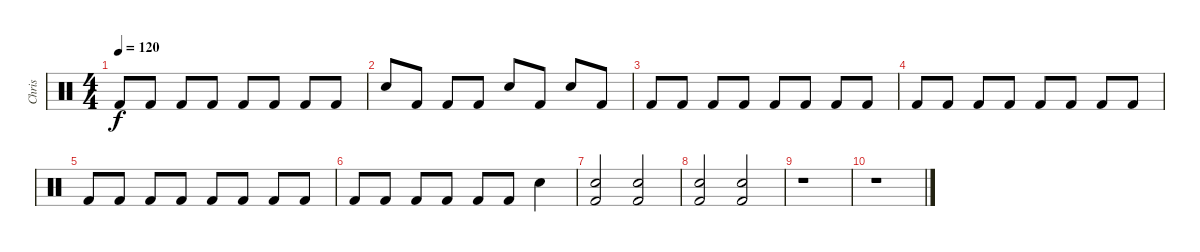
\track ("Chris" "Chris") {instrument percussion}
\staff {score}
\articulation defaults
\ts (4 4)
\tempo 120
\clef neutral
\ks c "Kick (hit) 2".8{dy f} "Kick (hit) 2".8 "Kick (hit) 2".8 "Kick (hit) 2".8 "Kick (hit) 2".8 "Kick (hit) 2".8 "Kick (hit) 2".8 "Kick (hit) 2".8
|
"Snare (hit) 2".8 "Kick (hit) 2".8 "Kick (hit) 2".8 "Kick (hit) 2".8 "Snare (hit) 2".8 "Kick (hit) 2".8 "Snare (hit) 2".8 "Kick (hit) 2".8 |
"Kick (hit) 2".8 "Kick (hit) 2".8 "Kick (hit) 2".8 "Kick (hit) 2".8 "Kick (hit) 2".8 "Kick (hit) 2".8 "Kick (hit) 2".8 "Kick (hit) 2".8 |
"Kick (hit) 2".8 "Kick (hit) 2".8 "Kick (hit) 2".8 "Kick (hit) 2".8 "Kick (hit) 2".8 "Kick (hit) 2".8 "Kick (hit) 2".8 "Kick (hit) 2".8 |
"Kick (hit) 2".8 "Kick (hit) 2".8 "Kick (hit) 2".8 "Kick (hit) 2".8 "Kick (hit) 2".8 "Kick (hit) 2".8 "Kick (hit) 2".8 "Kick (hit) 2".8 |
"Kick (hit) 2".8 "Kick (hit) 2".8 "Kick (hit) 2".8 "Kick (hit) 2".8 "Kick (hit) 2".8 "Kick (hit) 2".8 "Snare (hit) 2".4 |
("Snare (hit) 2" "Kick (hit) 2").2 ("Snare (hit) 2" "Kick (hit) 2").2 |
("Snare (hit) 2" "Kick (hit) 2").2 ("Snare (hit) 2" "Kick (hit) 2").2 |
r.1 |
r.1
